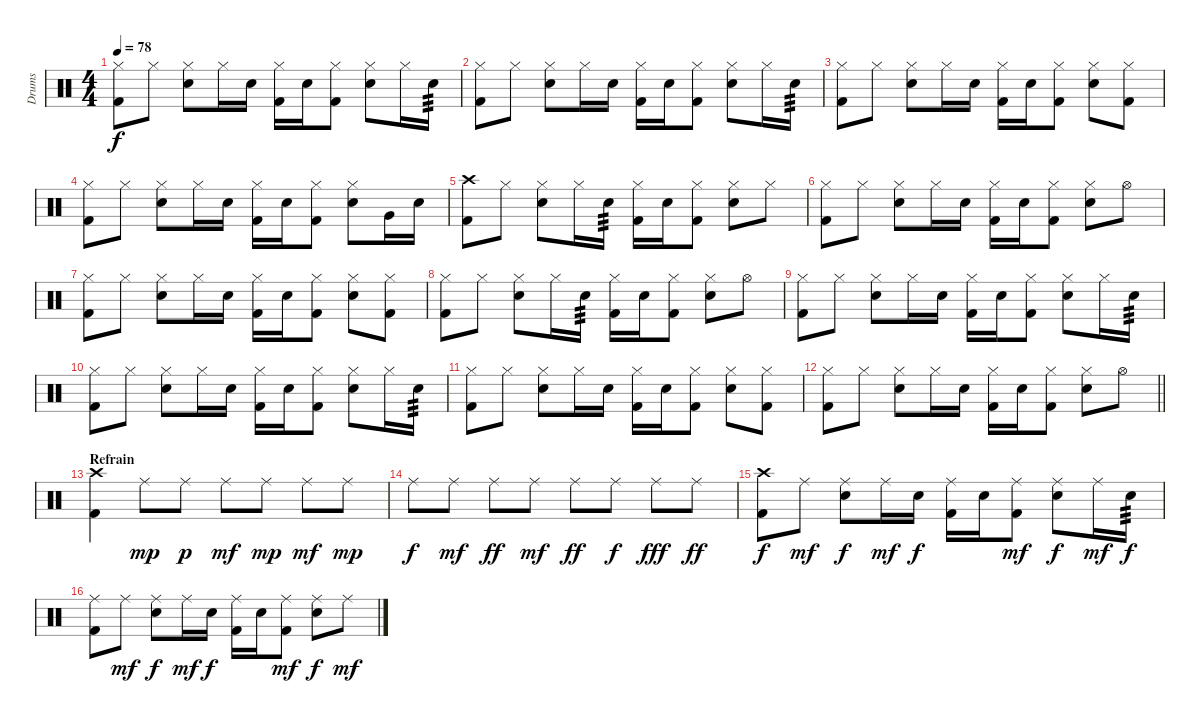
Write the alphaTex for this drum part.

\track ("Drums" "Drums") {instrument percussion}
\staff {score}
\articulation defaults
\ts (4 4)
\tempo 78
\clef neutral
\ks c
("Hi-Hat (closed)" "Kick (hit) 2").8{dy f} "Hi-Hat (closed)".8 ("Hi-Hat (closed)" "Snare (hit) 2").8 "Hi-Hat (closed)".16 "Snare (hit) 2".16 ("Hi-Hat (closed)" "Kick (hit) 2").16 "Snare (hit) 2".16 ("Hi-Hat (closed)" "Kick (hit) 2").8 ("Hi-Hat (closed)" "Snare (hit) 2").8 "Hi-Hat (closed)".16 "Snare (hit) 2".16{tp 3} |
("Hi-Hat (closed)" "Kick (hit) 2").8 "Hi-Hat (closed)".8 ("Hi-Hat (closed)" "Snare (hit) 2").8 "Hi-Hat (closed)".16 "Snare (hit) 2".16 ("Hi-Hat (closed)" "Kick (hit) 2").16 "Snare (hit) 2".16 ("Hi-Hat (closed)" "Kick (hit) 2").8 ("Hi-Hat (closed)" "Snare (hit) 2").8 "Hi-Hat (closed)".16 "Snare (hit) 2".16{tp 3} |
("Hi-Hat (closed)" "Kick (hit) 2").8 "Hi-Hat (closed)".8 ("Hi-Hat (closed)" "Snare (hit) 2").8 "Hi-Hat (closed)".16 "Snare (hit) 2".16 ("Hi-Hat (closed)" "Kick (hit) 2").16 "Snare (hit) 2".16 ("Hi-Hat (closed)" "Kick (hit) 2").8 ("Hi-Hat (closed)" "Snare (hit) 2").8 ("Hi-Hat (closed)" "Kick (hit) 2").8 |
("Hi-Hat (closed)" "Kick (hit) 2").8 "Hi-Hat (closed)".8 ("Hi-Hat (closed)" "Snare (hit) 2").8 "Hi-Hat (closed)".16 "Snare (hit) 2".16 ("Hi-Hat (closed)" "Kick (hit) 2").16 "Snare (hit) 2".16 ("Hi-Hat (closed)" "Kick (hit) 2").8 ("Hi-Hat (closed)" "Snare (hit) 2").8 "Very Low Tom (hit)".16 "Snare (hit) 2".16 |
("Crash high (hit)" "Kick (hit) 2").8 "Hi-Hat (closed)".8 ("Hi-Hat (closed)" "Snare (hit) 2").8 "Hi-Hat (closed)".16 "Snare (hit) 2".16{tp 3} ("Hi-Hat (closed)" "Kick (hit) 2").16 "Snare (hit) 2".16 ("Hi-Hat (closed)" "Kick (hit) 2").8 ("Hi-Hat (closed)" "Snare (hit) 2").8 "Hi-Hat (closed)".8 |
("Hi-Hat (closed)" "Kick (hit) 2").8 "Hi-Hat (closed)".8 ("Hi-Hat (closed)" "Snare (hit) 2").8 "Hi-Hat (closed)".16 "Snare (hit) 2".16 ("Hi-Hat (closed)" "Kick (hit) 2").16 "Snare (hit) 2".16 ("Hi-Hat (closed)" "Kick (hit) 2").8 ("Hi-Hat (closed)" "Snare (hit) 2").8 "Hi-Hat (open)".8 |
("Hi-Hat (closed)" "Kick (hit) 2").8 "Hi-Hat (closed)".8 ("Hi-Hat (closed)" "Snare (hit) 2").8 "Hi-Hat (closed)".16 "Snare (hit) 2".16 ("Hi-Hat (closed)" "Kick (hit) 2").16 "Snare (hit) 2".16 ("Hi-Hat (closed)" "Kick (hit) 2").8 ("Hi-Hat (closed)" "Snare (hit) 2").8 ("Hi-Hat (closed)" "Kick (hit) 2").8 |
("Hi-Hat (closed)" "Kick (hit) 2").8 "Hi-Hat (closed)".8 ("Hi-Hat (closed)" "Snare (hit) 2").8 "Hi-Hat (closed)".16 "Snare (hit) 2".16{tp 3} ("Hi-Hat (closed)" "Kick (hit) 2").16 "Snare (hit) 2".16 ("Hi-Hat (closed)" "Kick (hit) 2").8 ("Hi-Hat (closed)" "Snare (hit) 2").8 "Hi-Hat (open)".8 |
("Hi-Hat (closed)" "Kick (hit) 2").8 "Hi-Hat (closed)".8 ("Hi-Hat (closed)" "Snare (hit) 2").8 "Hi-Hat (closed)".16 "Snare (hit) 2".16 ("Hi-Hat (closed)" "Kick (hit) 2").16 "Snare (hit) 2".16 ("Hi-Hat (closed)" "Kick (hit) 2").8 ("Hi-Hat (closed)" "Snare (hit) 2").8 "Hi-Hat (closed)".16 "Snare (hit) 2".16{tp 3} |
("Hi-Hat (closed)" "Kick (hit) 2").8 "Hi-Hat (closed)".8 ("Hi-Hat (closed)" "Snare (hit) 2").8 "Hi-Hat (closed)".16 "Snare (hit) 2".16 ("Hi-Hat (closed)" "Kick (hit) 2").16 "Snare (hit) 2".16 ("Hi-Hat (closed)" "Kick (hit) 2").8 ("Hi-Hat (closed)" "Snare (hit) 2").8 "Hi-Hat (closed)".16 "Snare (hit) 2".16{tp 3} |
("Hi-Hat (closed)" "Kick (hit) 2").8 "Hi-Hat (closed)".8 ("Hi-Hat (closed)" "Snare (hit) 2").8 "Hi-Hat (closed)".16 "Snare (hit) 2".16 ("Hi-Hat (closed)" "Kick (hit) 2").16 "Snare (hit) 2".16 ("Hi-Hat (closed)" "Kick (hit) 2").8 ("Hi-Hat (closed)" "Snare (hit) 2").8 ("Hi-Hat (closed)" "Kick (hit) 2").8 |
\barLineRight lightlight
("Hi-Hat (closed)" "Kick (hit) 2").8 "Hi-Hat (closed)".8 ("Hi-Hat (closed)" "Snare (hit) 2").8 "Hi-Hat (closed)".16 "Snare (hit) 2".16 ("Hi-Hat (closed)" "Kick (hit) 2").16 "Snare (hit) 2".16 ("Hi-Hat (closed)" "Kick (hit) 2").8 ("Hi-Hat (closed)" "Snare (hit) 2").8 "Hi-Hat (open)".8 |
\section ("" "Refrain")
("Crash high (hit)" "Kick (hit) 2").4 "Ride (middle)".8{dy mp} "Ride (middle)".8{dy p} "Ride (middle)".8{dy mf} "Ride (middle)".8{dy mp} "Ride (middle)".8{dy mf} "Ride (middle)".8{dy mp} |
"Ride (middle)".8{dy f} "Ride (middle)".8{dy mf} "Ride (middle)".8{dy ff} "Ride (middle)".8{dy mf} "Ride (middle)".8{dy ff} "Ride (middle)".8{dy f} "Ride (middle)".8{dy fff} "Ride (middle)".8{dy ff} |
("Crash high (hit)" "Kick (hit) 2").8{dy f} "Ride (middle)".8{dy mf} ("Ride (middle)" "Snare (hit) 2").8{dy f} "Ride (middle)".16{dy mf} "Snare (hit) 2".16{dy f} ("Ride (middle)" "Kick (hit) 2").16 "Snare (hit) 2".16 ("Ride (middle)" "Kick (hit) 2").8{dy mf} ("Ride (middle)" "Snare (hit) 2").8{dy f} "Ride (middle)".16{dy mf} "Snare (hit) 2".16{tp 3 dy f} |
("Ride (middle)" "Kick (hit) 2").8 "Ride (middle)".8{dy mf} ("Ride (middle)" "Snare (hit) 2").8{dy f} "Ride (middle)".16{dy mf} "Snare (hit) 2".16{dy f} ("Ride (middle)" "Kick (hit) 2").16 "Snare (hit) 2".16 ("Ride (middle)" "Kick (hit) 2").8{dy mf} ("Ride (middle)" "Snare (hit) 2").8{dy f} "Ride (middle)".8{dy mf}
